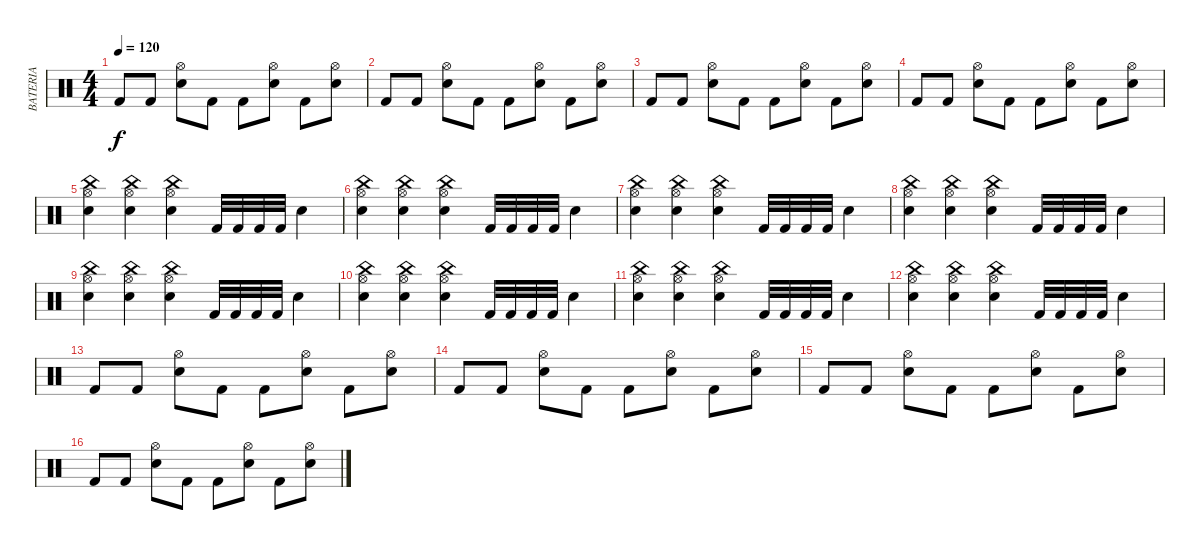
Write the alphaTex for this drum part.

\track ("BATERIA" "BATERIA") {instrument percussion}
\staff {score}
\articulation defaults
\ts (4 4)
\tempo 120
\clef neutral
\ks c "Kick (hit) 2".8{dy f} "Kick (hit) 2".8
("Snare (hit) 2" "Hi-Hat (open)").8 "Kick (hit) 2".8 "Kick (hit) 2".8 ("Snare (hit) 2" "Hi-Hat (open)").8 "Kick (hit) 2".8 ("Snare (hit) 2" "Hi-Hat (open)").8 |
"Kick (hit) 2".8 "Kick (hit) 2".8 ("Snare (hit) 2" "Hi-Hat (open)").8 "Kick (hit) 2".8 "Kick (hit) 2".8 ("Snare (hit) 2" "Hi-Hat (open)").8 "Kick (hit) 2".8 ("Snare (hit) 2" "Hi-Hat (open)").8 |
"Kick (hit) 2".8 "Kick (hit) 2".8 ("Snare (hit) 2" "Hi-Hat (open)").8 "Kick (hit) 2".8 "Kick (hit) 2".8 ("Snare (hit) 2" "Hi-Hat (open)").8 "Kick (hit) 2".8 ("Snare (hit) 2" "Hi-Hat (open)").8 |
"Kick (hit) 2".8 "Kick (hit) 2".8 ("Snare (hit) 2" "Hi-Hat (open)").8 "Kick (hit) 2".8 "Kick (hit) 2".8 ("Snare (hit) 2" "Hi-Hat (open)").8 "Kick (hit) 2".8 ("Snare (hit) 2" "Hi-Hat (open)").8 |
("Snare (hit) 2" "Hi-Hat (open)" "China (hit)").4 ("Snare (hit) 2" "China (hit)" "Hi-Hat (open)").4 ("Snare (hit) 2" "Hi-Hat (open)" "China (hit)").4 "Kick (hit) 2".32 "Kick (hit) 2".32 "Kick (hit) 2".32 "Kick (hit) 2".32 "Snare (hit) 2".4 |
("Snare (hit) 2" "Hi-Hat (open)" "China (hit)").4 ("Snare (hit) 2" "China (hit)" "Hi-Hat (open)").4 ("Snare (hit) 2" "Hi-Hat (open)" "China (hit)").4 "Kick (hit) 2".32 "Kick (hit) 2".32 "Kick (hit) 2".32 "Kick (hit) 2".32 "Snare (hit) 2".4 |
("Snare (hit) 2" "Hi-Hat (open)" "China (hit)").4 ("Snare (hit) 2" "China (hit)" "Hi-Hat (open)").4 ("Snare (hit) 2" "Hi-Hat (open)" "China (hit)").4 "Kick (hit) 2".32 "Kick (hit) 2".32 "Kick (hit) 2".32 "Kick (hit) 2".32 "Snare (hit) 2".4 |
("Snare (hit) 2" "Hi-Hat (open)" "China (hit)").4 ("Snare (hit) 2" "China (hit)" "Hi-Hat (open)").4 ("Snare (hit) 2" "Hi-Hat (open)" "China (hit)").4 "Kick (hit) 2".32 "Kick (hit) 2".32 "Kick (hit) 2".32 "Kick (hit) 2".32 "Snare (hit) 2".4 |
("Snare (hit) 2" "Hi-Hat (open)" "China (hit)").4 ("Snare (hit) 2" "China (hit)" "Hi-Hat (open)").4 ("Snare (hit) 2" "Hi-Hat (open)" "China (hit)").4 "Kick (hit) 2".32 "Kick (hit) 2".32 "Kick (hit) 2".32 "Kick (hit) 2".32 "Snare (hit) 2".4 |
("Snare (hit) 2" "Hi-Hat (open)" "China (hit)").4 ("Snare (hit) 2" "China (hit)" "Hi-Hat (open)").4 ("Snare (hit) 2" "Hi-Hat (open)" "China (hit)").4 "Kick (hit) 2".32 "Kick (hit) 2".32 "Kick (hit) 2".32 "Kick (hit) 2".32 "Snare (hit) 2".4 |
("Snare (hit) 2" "Hi-Hat (open)" "China (hit)").4 ("Snare (hit) 2" "China (hit)" "Hi-Hat (open)").4 ("Snare (hit) 2" "Hi-Hat (open)" "China (hit)").4 "Kick (hit) 2".32 "Kick (hit) 2".32 "Kick (hit) 2".32 "Kick (hit) 2".32 "Snare (hit) 2".4 |
("Snare (hit) 2" "Hi-Hat (open)" "China (hit)").4 ("Snare (hit) 2" "China (hit)" "Hi-Hat (open)").4 ("Snare (hit) 2" "Hi-Hat (open)" "China (hit)").4 "Kick (hit) 2".32 "Kick (hit) 2".32 "Kick (hit) 2".32 "Kick (hit) 2".32 "Snare (hit) 2".4 |
"Kick (hit) 2".8 "Kick (hit) 2".8 ("Snare (hit) 2" "Hi-Hat (open)").8 "Kick (hit) 2".8 "Kick (hit) 2".8 ("Snare (hit) 2" "Hi-Hat (open)").8 "Kick (hit) 2".8 ("Snare (hit) 2" "Hi-Hat (open)").8 |
"Kick (hit) 2".8 "Kick (hit) 2".8 ("Snare (hit) 2" "Hi-Hat (open)").8 "Kick (hit) 2".8 "Kick (hit) 2".8 ("Snare (hit) 2" "Hi-Hat (open)").8 "Kick (hit) 2".8 ("Snare (hit) 2" "Hi-Hat (open)").8 |
"Kick (hit) 2".8 "Kick (hit) 2".8 ("Snare (hit) 2" "Hi-Hat (open)").8 "Kick (hit) 2".8 "Kick (hit) 2".8 ("Snare (hit) 2" "Hi-Hat (open)").8 "Kick (hit) 2".8 ("Snare (hit) 2" "Hi-Hat (open)").8 |
"Kick (hit) 2".8 "Kick (hit) 2".8 ("Snare (hit) 2" "Hi-Hat (open)").8 "Kick (hit) 2".8 "Kick (hit) 2".8 ("Snare (hit) 2" "Hi-Hat (open)").8 "Kick (hit) 2".8 ("Snare (hit) 2" "Hi-Hat (open)").8
